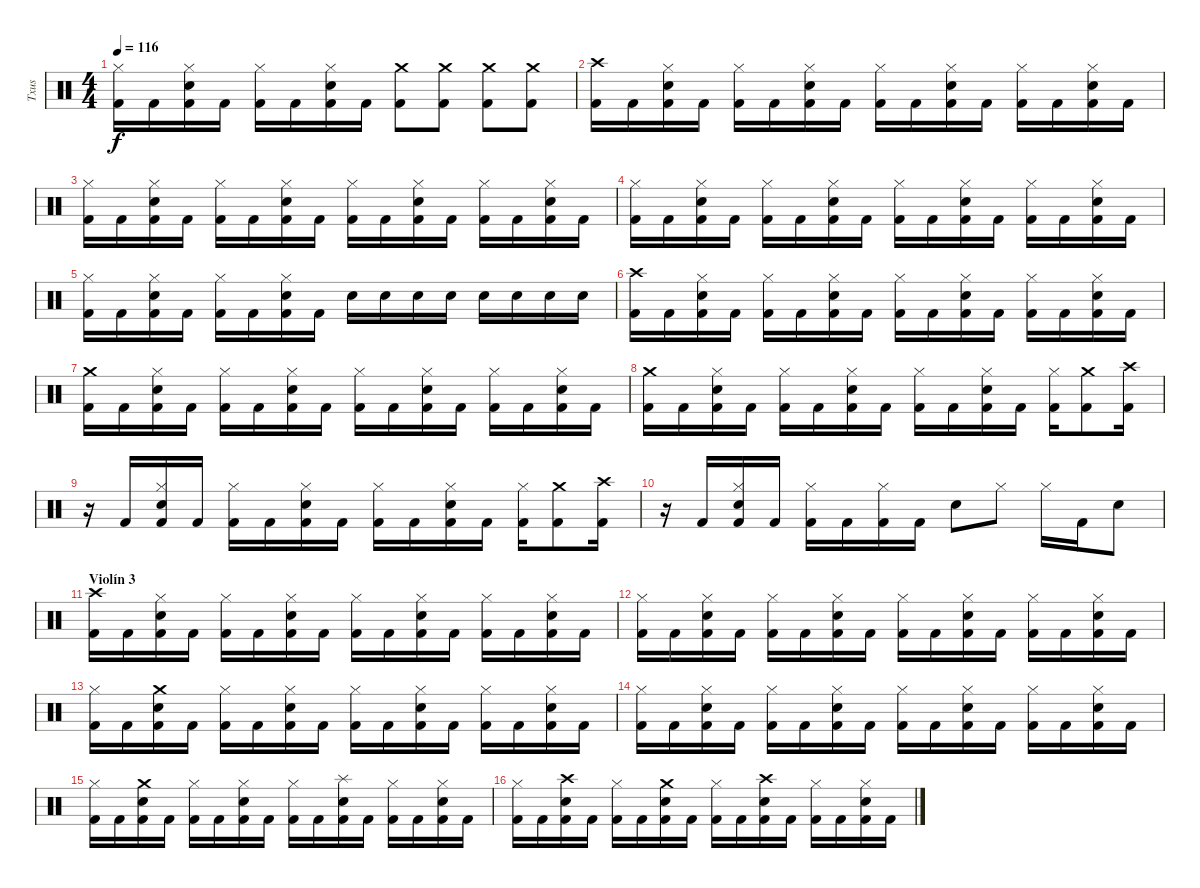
\track ("Txus" "Txus") {instrument percussion}
\staff {score}
\articulation defaults
\ts (4 4)
\tempo 116
\clef neutral
\ks c
("Kick (hit) 2" "Hi-Hat (closed)").16{dy f} "Kick (hit) 2".16 ("Kick (hit) 2" "Electric Snare (hit)" "Hi-Hat (closed)").16 "Kick (hit) 2".16 ("Kick (hit) 2" "Hi-Hat (closed)").16 "Kick (hit) 2".16 ("Kick (hit) 2" "Electric Snare (hit)" "Hi-Hat (closed)").16 "Kick (hit) 2".16 ("Kick (hit) 2" "Crash medium (hit)").8 ("Kick (hit) 2" "Crash medium (hit)").8 ("Kick (hit) 2" "Crash medium (hit)").8 ("Kick (hit) 2" "Crash medium (hit)").8 |
("Kick (hit) 2" "Crash high (hit)").16 "Kick (hit) 2".16 ("Kick (hit) 2" "Electric Snare (hit)" "Hi-Hat (closed)").16 "Kick (hit) 2".16 ("Kick (hit) 2" "Hi-Hat (closed)").16 "Kick (hit) 2".16 ("Kick (hit) 2" "Electric Snare (hit)" "Hi-Hat (closed)").16 "Kick (hit) 2".16 ("Kick (hit) 2" "Hi-Hat (closed)").16 "Kick (hit) 2".16 ("Kick (hit) 2" "Electric Snare (hit)" "Hi-Hat (closed)").16 "Kick (hit) 2".16 ("Kick (hit) 2" "Hi-Hat (closed)").16 "Kick (hit) 2".16 ("Kick (hit) 2" "Electric Snare (hit)" "Hi-Hat (closed)").16 "Kick (hit) 2".16 |
("Kick (hit) 2" "Hi-Hat (closed)").16 "Kick (hit) 2".16 ("Kick (hit) 2" "Electric Snare (hit)" "Hi-Hat (closed)").16 "Kick (hit) 2".16 ("Kick (hit) 2" "Hi-Hat (closed)").16 "Kick (hit) 2".16 ("Kick (hit) 2" "Electric Snare (hit)" "Hi-Hat (closed)").16 "Kick (hit) 2".16 ("Kick (hit) 2" "Hi-Hat (closed)").16 "Kick (hit) 2".16 ("Kick (hit) 2" "Electric Snare (hit)" "Hi-Hat (closed)").16 "Kick (hit) 2".16 ("Kick (hit) 2" "Hi-Hat (closed)").16 "Kick (hit) 2".16 ("Kick (hit) 2" "Electric Snare (hit)" "Hi-Hat (closed)").16 "Kick (hit) 2".16 |
("Kick (hit) 2" "Hi-Hat (closed)").16 "Kick (hit) 2".16 ("Kick (hit) 2" "Electric Snare (hit)" "Hi-Hat (closed)").16 "Kick (hit) 2".16 ("Kick (hit) 2" "Hi-Hat (closed)").16 "Kick (hit) 2".16 ("Kick (hit) 2" "Electric Snare (hit)" "Hi-Hat (closed)").16 "Kick (hit) 2".16 ("Kick (hit) 2" "Hi-Hat (closed)").16 "Kick (hit) 2".16 ("Kick (hit) 2" "Electric Snare (hit)" "Hi-Hat (closed)").16 "Kick (hit) 2".16 ("Kick (hit) 2" "Hi-Hat (closed)").16 "Kick (hit) 2".16 ("Kick (hit) 2" "Electric Snare (hit)" "Hi-Hat (closed)").16 "Kick (hit) 2".16 |
("Kick (hit) 2" "Hi-Hat (closed)").16 "Kick (hit) 2".16 ("Kick (hit) 2" "Electric Snare (hit)" "Hi-Hat (closed)").16 "Kick (hit) 2".16 ("Kick (hit) 2" "Hi-Hat (closed)").16 "Kick (hit) 2".16 ("Kick (hit) 2" "Electric Snare (hit)" "Hi-Hat (closed)").16 "Kick (hit) 2".16 "Electric Snare (hit)".16 "Electric Snare (hit)".16 "Electric Snare (hit)".16 "Electric Snare (hit)".16 "Electric Snare (hit)".16 "Electric Snare (hit)".16 "Electric Snare (hit)".16 "Electric Snare (hit)".16 |
("Kick (hit) 2" "Crash high (hit)").16 "Kick (hit) 2".16 ("Kick (hit) 2" "Electric Snare (hit)" "Hi-Hat (closed)").16 "Kick (hit) 2".16 ("Kick (hit) 2" "Hi-Hat (closed)").16 "Kick (hit) 2".16 ("Kick (hit) 2" "Electric Snare (hit)" "Hi-Hat (closed)").16 "Kick (hit) 2".16 ("Kick (hit) 2" "Hi-Hat (closed)").16 "Kick (hit) 2".16 ("Kick (hit) 2" "Electric Snare (hit)" "Hi-Hat (closed)").16 "Kick (hit) 2".16 ("Kick (hit) 2" "Hi-Hat (closed)").16 "Kick (hit) 2".16 ("Kick (hit) 2" "Electric Snare (hit)" "Hi-Hat (closed)").16 "Kick (hit) 2".16 |
("Kick (hit) 2" "Crash medium (hit)").16 "Kick (hit) 2".16 ("Kick (hit) 2" "Electric Snare (hit)" "Hi-Hat (closed)").16 "Kick (hit) 2".16 ("Kick (hit) 2" "Hi-Hat (closed)").16 "Kick (hit) 2".16 ("Kick (hit) 2" "Electric Snare (hit)" "Hi-Hat (closed)").16 "Kick (hit) 2".16 ("Kick (hit) 2" "Hi-Hat (closed)").16 "Kick (hit) 2".16 ("Kick (hit) 2" "Electric Snare (hit)" "Hi-Hat (closed)").16 "Kick (hit) 2".16 ("Kick (hit) 2" "Hi-Hat (closed)").16 "Kick (hit) 2".16 ("Kick (hit) 2" "Electric Snare (hit)" "Hi-Hat (closed)").16 "Kick (hit) 2".16 |
("Kick (hit) 2" "Crash medium (hit)").16 "Kick (hit) 2".16 ("Kick (hit) 2" "Electric Snare (hit)" "Hi-Hat (closed)").16 "Kick (hit) 2".16 ("Kick (hit) 2" "Hi-Hat (closed)").16 "Kick (hit) 2".16 ("Kick (hit) 2" "Electric Snare (hit)" "Hi-Hat (closed)").16 "Kick (hit) 2".16 ("Kick (hit) 2" "Hi-Hat (closed)").16 "Kick (hit) 2".16 ("Kick (hit) 2" "Electric Snare (hit)" "Hi-Hat (closed)").16 "Kick (hit) 2".16 ("Kick (hit) 2" "Hi-Hat (closed)").16 ("Kick (hit) 2" "Crash medium (hit)").8 ("Kick (hit) 2" "Crash high (hit)").16 |
r.16 "Kick (hit) 2".16 ("Kick (hit) 2" "Electric Snare (hit)" "Hi-Hat (closed)").16 "Kick (hit) 2".16 ("Kick (hit) 2" "Hi-Hat (closed)").16 "Kick (hit) 2".16 ("Kick (hit) 2" "Electric Snare (hit)" "Hi-Hat (closed)").16 "Kick (hit) 2".16 ("Kick (hit) 2" "Hi-Hat (closed)").16 "Kick (hit) 2".16 ("Kick (hit) 2" "Electric Snare (hit)" "Hi-Hat (closed)").16 "Kick (hit) 2".16 ("Kick (hit) 2" "Hi-Hat (closed)").16 ("Kick (hit) 2" "Crash medium (hit)").8 ("Kick (hit) 2" "Crash high (hit)").16 |
r.16 "Kick (hit) 2".16 ("Kick (hit) 2" "Electric Snare (hit)" "Hi-Hat (closed)").16 "Kick (hit) 2".16 ("Kick (hit) 2" "Hi-Hat (closed)").16 "Kick (hit) 2".16 ("Kick (hit) 2" "Hi-Hat (closed)").16 "Kick (hit) 2".16 "Electric Snare (hit)".8 "Hi-Hat (closed)".8{volume 11} "Hi-Hat (closed)".16 "Kick (hit) 2".16{volume 16} "Electric Snare (hit)".8 |
\section ("" "Violín 3")
("Kick (hit) 2" "Crash high (hit)").16 "Kick (hit) 2".16 ("Kick (hit) 2" "Electric Snare (hit)" "Hi-Hat (closed)").16 "Kick (hit) 2".16 ("Kick (hit) 2" "Hi-Hat (closed)").16 "Kick (hit) 2".16 ("Kick (hit) 2" "Electric Snare (hit)" "Hi-Hat (closed)").16 "Kick (hit) 2".16 ("Kick (hit) 2" "Hi-Hat (closed)").16 "Kick (hit) 2".16 ("Kick (hit) 2" "Electric Snare (hit)" "Hi-Hat (closed)").16 "Kick (hit) 2".16 ("Kick (hit) 2" "Hi-Hat (closed)").16 "Kick (hit) 2".16 ("Kick (hit) 2" "Electric Snare (hit)" "Hi-Hat (closed)").16 "Kick (hit) 2".16 |
("Kick (hit) 2" "Hi-Hat (closed)").16 "Kick (hit) 2".16 ("Kick (hit) 2" "Electric Snare (hit)" "Hi-Hat (closed)").16 "Kick (hit) 2".16 ("Kick (hit) 2" "Hi-Hat (closed)").16 "Kick (hit) 2".16 ("Kick (hit) 2" "Electric Snare (hit)" "Hi-Hat (closed)").16 "Kick (hit) 2".16 ("Kick (hit) 2" "Hi-Hat (closed)").16 "Kick (hit) 2".16 ("Kick (hit) 2" "Electric Snare (hit)" "Hi-Hat (closed)").16 "Kick (hit) 2".16 ("Kick (hit) 2" "Hi-Hat (closed)").16 "Kick (hit) 2".16 ("Kick (hit) 2" "Electric Snare (hit)" "Hi-Hat (closed)").16 "Kick (hit) 2".16 |
("Kick (hit) 2" "Hi-Hat (closed)").16 "Kick (hit) 2".16 ("Kick (hit) 2" "Electric Snare (hit)" "Crash medium (hit)").16 "Kick (hit) 2".16 ("Kick (hit) 2" "Hi-Hat (closed)").16 "Kick (hit) 2".16 ("Kick (hit) 2" "Electric Snare (hit)" "Hi-Hat (closed)").16 "Kick (hit) 2".16 ("Kick (hit) 2" "Hi-Hat (closed)").16 "Kick (hit) 2".16 ("Kick (hit) 2" "Electric Snare (hit)" "Hi-Hat (closed)").16 "Kick (hit) 2".16 ("Kick (hit) 2" "Hi-Hat (closed)").16 "Kick (hit) 2".16 ("Kick (hit) 2" "Electric Snare (hit)" "Hi-Hat (closed)").16 "Kick (hit) 2".16 |
("Kick (hit) 2" "Hi-Hat (closed)").16 "Kick (hit) 2".16 ("Kick (hit) 2" "Electric Snare (hit)" "Hi-Hat (closed)").16 "Kick (hit) 2".16 ("Kick (hit) 2" "Hi-Hat (closed)").16 "Kick (hit) 2".16 ("Kick (hit) 2" "Electric Snare (hit)" "Hi-Hat (closed)").16 "Kick (hit) 2".16 ("Kick (hit) 2" "Hi-Hat (closed)").16 "Kick (hit) 2".16 ("Kick (hit) 2" "Electric Snare (hit)" "Hi-Hat (closed)").16 "Kick (hit) 2".16 ("Kick (hit) 2" "Hi-Hat (closed)").16 "Kick (hit) 2".16 ("Kick (hit) 2" "Electric Snare (hit)" "Hi-Hat (closed)").16 "Kick (hit) 2".16 |
("Kick (hit) 2" "Hi-Hat (closed)").16 "Kick (hit) 2".16 ("Kick (hit) 2" "Electric Snare (hit)" "Crash medium (hit)").16 "Kick (hit) 2".16 ("Kick (hit) 2" "Hi-Hat (closed)").16 "Kick (hit) 2".16 ("Kick (hit) 2" "Electric Snare (hit)" "Hi-Hat (closed)").16 "Kick (hit) 2".16 ("Kick (hit) 2" "Hi-Hat (closed)").16 "Kick (hit) 2".16 ("Kick (hit) 2" "Electric Snare (hit)" "Splash (hit)").16 "Kick (hit) 2".16 ("Kick (hit) 2" "Hi-Hat (closed)").16 "Kick (hit) 2".16 ("Kick (hit) 2" "Electric Snare (hit)" "Hi-Hat (closed)").16 "Kick (hit) 2".16 |
("Kick (hit) 2" "Hi-Hat (closed)").16 "Kick (hit) 2".16 ("Kick (hit) 2" "Electric Snare (hit)" "Crash high (hit)").16 "Kick (hit) 2".16 ("Kick (hit) 2" "Hi-Hat (closed)").16 "Kick (hit) 2".16 ("Kick (hit) 2" "Electric Snare (hit)" "Crash medium (hit)").16 "Kick (hit) 2".16 ("Kick (hit) 2" "Hi-Hat (closed)").16 "Kick (hit) 2".16 ("Kick (hit) 2" "Electric Snare (hit)" "Crash high (hit)").16 "Kick (hit) 2".16 ("Kick (hit) 2" "Hi-Hat (closed)").16 "Kick (hit) 2".16 ("Kick (hit) 2" "Electric Snare (hit)" "Hi-Hat (closed)").16 "Kick (hit) 2".16
